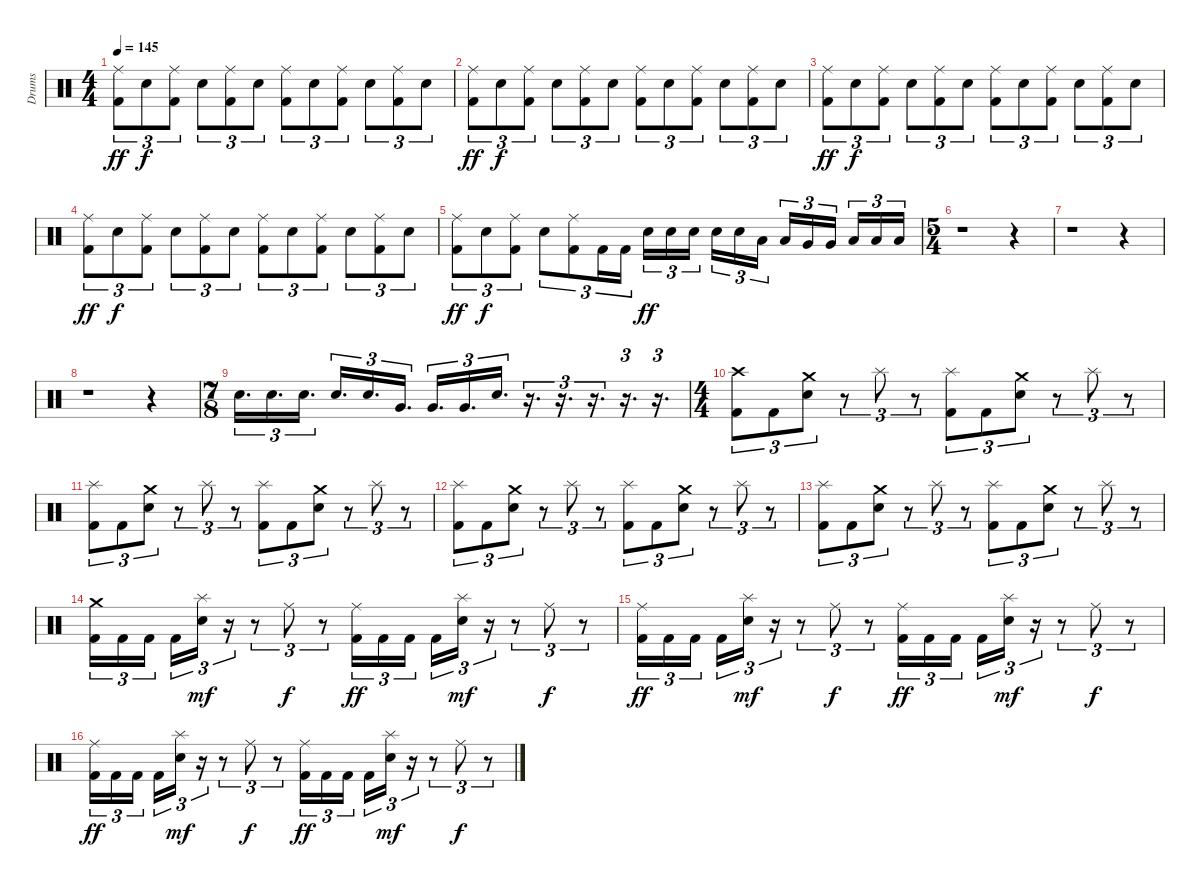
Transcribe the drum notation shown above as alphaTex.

\track ("Drums" "Drums") {instrument percussion}
\staff {score}
\articulation defaults
\ts (4 4)
\tempo 145
\clef neutral
\ks c
("Ride (middle)" "Kick (hit) 2").8{tu (3 2) dy ff} "Electric Snare (hit)".8{tu (3 2) dy f} ("Ride (middle)" "Kick (hit) 2").8{tu (3 2)} "Electric Snare (hit)".8{tu (3 2)} ("Ride (middle)" "Kick (hit) 2").8{tu (3 2)} "Electric Snare (hit)".8{tu (3 2)} ("Ride (middle)" "Kick (hit) 2").8{tu (3 2)} "Electric Snare (hit)".8{tu (3 2)} ("Ride (middle)" "Kick (hit) 2").8{tu (3 2)} "Electric Snare (hit)".8{tu (3 2)} ("Ride (middle)" "Kick (hit) 2").8{tu (3 2)} "Electric Snare (hit)".8{tu (3 2)} |
("Ride (middle)" "Kick (hit) 2").8{tu (3 2) dy ff} "Electric Snare (hit)".8{tu (3 2) dy f} ("Ride (middle)" "Kick (hit) 2").8{tu (3 2)} "Electric Snare (hit)".8{tu (3 2)} ("Ride (middle)" "Kick (hit) 2").8{tu (3 2)} "Electric Snare (hit)".8{tu (3 2)} ("Ride (middle)" "Kick (hit) 2").8{tu (3 2)} "Electric Snare (hit)".8{tu (3 2)} ("Ride (middle)" "Kick (hit) 2").8{tu (3 2)} "Electric Snare (hit)".8{tu (3 2)} ("Ride (middle)" "Kick (hit) 2").8{tu (3 2)} "Electric Snare (hit)".8{tu (3 2)} |
("Ride (middle)" "Kick (hit) 2").8{tu (3 2) dy ff} "Electric Snare (hit)".8{tu (3 2) dy f} ("Ride (middle)" "Kick (hit) 2").8{tu (3 2)} "Electric Snare (hit)".8{tu (3 2)} ("Ride (middle)" "Kick (hit) 2").8{tu (3 2)} "Electric Snare (hit)".8{tu (3 2)} ("Ride (middle)" "Kick (hit) 2").8{tu (3 2)} "Electric Snare (hit)".8{tu (3 2)} ("Ride (middle)" "Kick (hit) 2").8{tu (3 2)} "Electric Snare (hit)".8{tu (3 2)} ("Ride (middle)" "Kick (hit) 2").8{tu (3 2)} "Electric Snare (hit)".8{tu (3 2)} |
("Ride (middle)" "Kick (hit) 2").8{tu (3 2) dy ff} "Electric Snare (hit)".8{tu (3 2) dy f} ("Ride (middle)" "Kick (hit) 2").8{tu (3 2)} "Electric Snare (hit)".8{tu (3 2)} ("Ride (middle)" "Kick (hit) 2").8{tu (3 2)} "Electric Snare (hit)".8{tu (3 2)} ("Ride (middle)" "Kick (hit) 2").8{tu (3 2)} "Electric Snare (hit)".8{tu (3 2)} ("Ride (middle)" "Kick (hit) 2").8{tu (3 2)} "Electric Snare (hit)".8{tu (3 2)} ("Ride (middle)" "Kick (hit) 2").8{tu (3 2)} "Electric Snare (hit)".8{tu (3 2)} |
("Ride (middle)" "Kick (hit) 2").8{tu (3 2) dy ff} "Electric Snare (hit)".8{tu (3 2) dy f} ("Ride (middle)" "Kick (hit) 2").8{tu (3 2)} "Electric Snare (hit)".8{tu (3 2)} ("Ride (middle)" "Kick (hit) 2").8{tu (3 2)} "Kick (hit) 2".16{tu (3 2)} "Kick (hit) 2".16{tu (3 2)} "Electric Snare (hit)".16{tu (3 2) dy ff} "Electric Snare (hit)".16{tu (3 2)} "Electric Snare (hit)".16{tu (3 2) beam splitsecondary} "Electric Snare (hit)".16{tu (3 2)} "Electric Snare (hit)".16{tu (3 2)} "Low Tom (hit)".16{tu (3 2)} "Low Tom (hit)".16{tu (3 2)} "Very Low Tom (hit)".16{tu (3 2)} "Very Low Tom (hit)".16{tu (3 2) beam splitsecondary} "Low Floor Tom (hit)".16{tu (3 2)} "Low Floor Tom (hit)".16{tu (3 2)} "Low Floor Tom (hit)".16{tu (3 2)} |
\ts (5 4)
r.1 r.4 |
r.1 r.4 |
r.1 r.4 |
\ts (7 8)
"Electric Snare (hit)".16{d tu (3 2)} "Electric Snare (hit)".16{d tu (3 2)} "Electric Snare (hit)".16{d tu (3 2)} "Electric Snare (hit)".16{d tu (3 2)} "Electric Snare (hit)".16{d tu (3 2)} "Very Low Tom (hit)".16{d tu (3 2)} "Very Low Tom (hit)".16{d tu (3 2)} "Very Low Tom (hit)".16{d tu (3 2)} "Electric Snare (hit)".16{d tu (3 2)} r.16{d tu (3 2)} r.16{d tu (3 2)} r.16{d tu (3 2)} r.16{d tu (3 2)} r.16{d tu (3 2)} |
\ts (4 4)
("Crash high (hit)" "Kick (hit) 2").8{tu (3 2)} "Kick (hit) 2".8{tu (3 2)} ("Crash medium (hit)" "Electric Snare (hit)").8{tu (3 2)} r.8{tu (3 2)} "Splash (hit)".8{tu (3 2)} r.8{tu (3 2)} ("Splash (hit)" "Kick (hit) 2").8{tu (3 2)} "Kick (hit) 2".8{tu (3 2)} ("Crash medium (hit)" "Electric Snare (hit)").8{tu (3 2)} r.8{tu (3 2)} "Splash (hit)".8{tu (3 2)} r.8{tu (3 2)} |
("Splash (hit)" "Kick (hit) 2").8{tu (3 2)} "Kick (hit) 2".8{tu (3 2)} ("Crash medium (hit)" "Electric Snare (hit)").8{tu (3 2)} r.8{tu (3 2)} "Splash (hit)".8{tu (3 2)} r.8{tu (3 2)} ("Splash (hit)" "Kick (hit) 2").8{tu (3 2)} "Kick (hit) 2".8{tu (3 2)} ("Crash medium (hit)" "Electric Snare (hit)").8{tu (3 2)} r.8{tu (3 2)} "Splash (hit)".8{tu (3 2)} r.8{tu (3 2)} |
("Splash (hit)" "Kick (hit) 2").8{tu (3 2)} "Kick (hit) 2".8{tu (3 2)} ("Crash medium (hit)" "Electric Snare (hit)").8{tu (3 2)} r.8{tu (3 2)} "Splash (hit)".8{tu (3 2)} r.8{tu (3 2)} ("Splash (hit)" "Kick (hit) 2").8{tu (3 2)} "Kick (hit) 2".8{tu (3 2)} ("Crash medium (hit)" "Electric Snare (hit)").8{tu (3 2)} r.8{tu (3 2)} "Splash (hit)".8{tu (3 2)} r.8{tu (3 2)} |
("Splash (hit)" "Kick (hit) 2").8{tu (3 2)} "Kick (hit) 2".8{tu (3 2)} ("Crash medium (hit)" "Electric Snare (hit)").8{tu (3 2)} r.8{tu (3 2)} "Splash (hit)".8{tu (3 2)} r.8{tu (3 2)} ("Splash (hit)" "Kick (hit) 2").8{tu (3 2)} "Kick (hit) 2".8{tu (3 2)} ("Crash medium (hit)" "Electric Snare (hit)").8{tu (3 2)} r.8{tu (3 2)} "Splash (hit)".8{tu (3 2)} r.8{tu (3 2)} |
("Crash medium (hit)" "Kick (hit) 2").16{tu (3 2)} "Kick (hit) 2".16{tu (3 2)} "Kick (hit) 2".16{tu (3 2) beam splitsecondary} "Kick (hit) 2".16{tu (3 2)} ("Splash (hit)" "Electric Snare (hit)").16{tu (3 2) dy mf} r.16{tu (3 2)} r.8{tu (3 2)} "Ride (middle)".8{tu (3 2) dy f} r.8{tu (3 2)} ("Ride (middle)" "Kick (hit) 2").16{tu (3 2) dy ff} "Kick (hit) 2".16{tu (3 2)} "Kick (hit) 2".16{tu (3 2) beam splitsecondary} "Kick (hit) 2".16{tu (3 2)} ("Splash (hit)" "Electric Snare (hit)").16{tu (3 2) dy mf} r.16{tu (3 2)} r.8{tu (3 2)} "Ride (middle)".8{tu (3 2) dy f} r.8{tu (3 2)} |
("Ride (middle)" "Kick (hit) 2").16{tu (3 2) dy ff} "Kick (hit) 2".16{tu (3 2)} "Kick (hit) 2".16{tu (3 2) beam splitsecondary} "Kick (hit) 2".16{tu (3 2)} ("Splash (hit)" "Electric Snare (hit)").16{tu (3 2) dy mf} r.16{tu (3 2)} r.8{tu (3 2)} "Ride (middle)".8{tu (3 2) dy f} r.8{tu (3 2)} ("Ride (middle)" "Kick (hit) 2").16{tu (3 2) dy ff} "Kick (hit) 2".16{tu (3 2)} "Kick (hit) 2".16{tu (3 2) beam splitsecondary} "Kick (hit) 2".16{tu (3 2)} ("Splash (hit)" "Electric Snare (hit)").16{tu (3 2) dy mf} r.16{tu (3 2)} r.8{tu (3 2)} "Ride (middle)".8{tu (3 2) dy f} r.8{tu (3 2)} |
("Ride (middle)" "Kick (hit) 2").16{tu (3 2) dy ff} "Kick (hit) 2".16{tu (3 2)} "Kick (hit) 2".16{tu (3 2) beam splitsecondary} "Kick (hit) 2".16{tu (3 2)} ("Splash (hit)" "Electric Snare (hit)").16{tu (3 2) dy mf} r.16{tu (3 2)} r.8{tu (3 2)} "Ride (middle)".8{tu (3 2) dy f} r.8{tu (3 2)} ("Ride (middle)" "Kick (hit) 2").16{tu (3 2) dy ff} "Kick (hit) 2".16{tu (3 2)} "Kick (hit) 2".16{tu (3 2) beam splitsecondary} "Kick (hit) 2".16{tu (3 2)} ("Splash (hit)" "Electric Snare (hit)").16{tu (3 2) dy mf} r.16{tu (3 2)} r.8{tu (3 2)} "Ride (middle)".8{tu (3 2) dy f} r.8{tu (3 2)}
